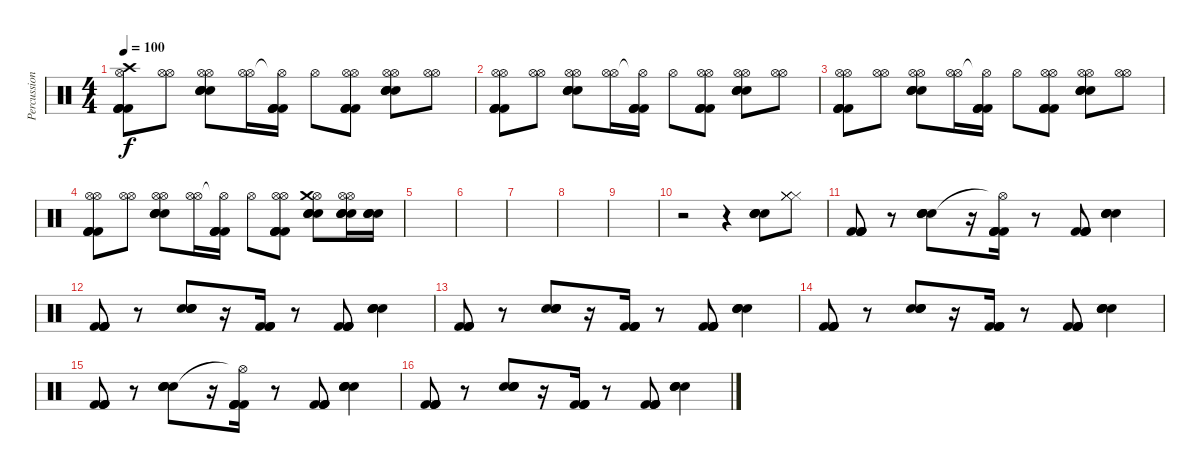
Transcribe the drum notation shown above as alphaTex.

\track ("Percussion" "Percussion") {instrument percussion}
\staff {score}
\articulation defaults
\ts (4 4)
\tempo 100
\clef neutral
\ks c
("Hi-Hat (open)" "Kick (hit) 2" "Kick (hit) 2" "Kick (hit) 2" "Kick (hit) 2" "Crash high (hit)").8{dy f} ("Hi-Hat (open)" "Hi-Hat (open)").8 ("Hi-Hat (open)" "Electric Snare (hit)" "Electric Snare (hit)" "Electric Snare (hit)" "Electric Snare (hit)" "Hi-Hat (open)").8 ("Hi-Hat (open)" "Hi-Hat (open)").16 ("Hi-Hat (open)"{t} "Kick (hit) 2" "Kick (hit) 2" "Kick (hit) 2" "Kick (hit) 2").16 "Hi-Hat (open)".8 ("Hi-Hat (open)" "Kick (hit) 2" "Kick (hit) 2" "Kick (hit) 2" "Kick (hit) 2" "Hi-Hat (open)").8 ("Hi-Hat (open)" "Electric Snare (hit)" "Electric Snare (hit)" "Electric Snare (hit)" "Electric Snare (hit)" "Hi-Hat (open)").8 ("Hi-Hat (open)" "Hi-Hat (open)").8 |
("Hi-Hat (open)" "Kick (hit) 2" "Kick (hit) 2" "Kick (hit) 2" "Kick (hit) 2" "Hi-Hat (open)").8 ("Hi-Hat (open)" "Hi-Hat (open)").8 ("Hi-Hat (open)" "Electric Snare (hit)" "Electric Snare (hit)" "Electric Snare (hit)" "Electric Snare (hit)" "Hi-Hat (open)").8 ("Hi-Hat (open)" "Hi-Hat (open)").16 ("Hi-Hat (open)"{t} "Kick (hit) 2" "Kick (hit) 2" "Kick (hit) 2" "Kick (hit) 2").16 "Hi-Hat (open)".8 ("Hi-Hat (open)" "Kick (hit) 2" "Kick (hit) 2" "Kick (hit) 2" "Kick (hit) 2" "Hi-Hat (open)").8 ("Hi-Hat (open)" "Electric Snare (hit)" "Electric Snare (hit)" "Electric Snare (hit)" "Electric Snare (hit)" "Hi-Hat (open)").8 ("Hi-Hat (open)" "Hi-Hat (open)").8 |
("Hi-Hat (open)" "Kick (hit) 2" "Kick (hit) 2" "Kick (hit) 2" "Kick (hit) 2" "Hi-Hat (open)").8 ("Hi-Hat (open)" "Hi-Hat (open)").8 ("Hi-Hat (open)" "Electric Snare (hit)" "Electric Snare (hit)" "Electric Snare (hit)" "Electric Snare (hit)" "Hi-Hat (open)").8 ("Hi-Hat (open)" "Hi-Hat (open)").16 ("Hi-Hat (open)"{t} "Kick (hit) 2" "Kick (hit) 2" "Kick (hit) 2" "Kick (hit) 2").16 "Hi-Hat (open)".8 ("Hi-Hat (open)" "Kick (hit) 2" "Kick (hit) 2" "Kick (hit) 2" "Kick (hit) 2" "Hi-Hat (open)").8 ("Hi-Hat (open)" "Electric Snare (hit)" "Electric Snare (hit)" "Electric Snare (hit)" "Electric Snare (hit)" "Hi-Hat (open)").8 ("Hi-Hat (open)" "Hi-Hat (open)").8 |
("Hi-Hat (open)" "Kick (hit) 2" "Kick (hit) 2" "Kick (hit) 2" "Kick (hit) 2" "Hi-Hat (open)").8 ("Hi-Hat (open)" "Hi-Hat (open)").8 ("Hi-Hat (open)" "Electric Snare (hit)" "Electric Snare (hit)" "Electric Snare (hit)" "Electric Snare (hit)" "Hi-Hat (open)").8 ("Hi-Hat (open)" "Hi-Hat (open)").16 ("Hi-Hat (open)"{t} "Kick (hit) 2" "Kick (hit) 2" "Kick (hit) 2" "Kick (hit) 2").16 "Hi-Hat (open)".8 ("Hi-Hat (open)" "Kick (hit) 2" "Kick (hit) 2" "Kick (hit) 2" "Kick (hit) 2" "Hi-Hat (open)").8 ("Hi-Hat (open)" "Electric Snare (hit)" "Electric Snare (hit)" "Electric Snare (hit)" "Electric Snare (hit)" "Crash medium (hit)").8 ("Hi-Hat (open)" "Electric Snare (hit)" "Electric Snare (hit)" "Electric Snare (hit)" "Electric Snare (hit)" "Hi-Hat (open)").16 ("Electric Snare (hit)" "Electric Snare (hit)" "Electric Snare (hit)" "Electric Snare (hit)").16 |
|
|
|
|
|
r.2 r.4 ("Electric Snare (hit)" "Electric Snare (hit)" "Electric Snare (hit)" "Electric Snare (hit)").8 ("Hi-Hat (closed)" "Hi-Hat (closed)" "Hi-Hat (closed)" "Hi-Hat (closed)").8 |
("Kick (hit) 2" "Kick (hit) 2" "Kick (hit) 2" "Kick (hit) 2").8 r.8 ("Electric Snare (hit)" "Electric Snare (hit)" "Electric Snare (hit)" "Electric Snare (hit)").8 r.16 ("Hi-Hat (open)"{t} "Kick (hit) 2" "Kick (hit) 2" "Kick (hit) 2" "Kick (hit) 2").16 r.8 ("Kick (hit) 2" "Kick (hit) 2" "Kick (hit) 2" "Kick (hit) 2").8 ("Electric Snare (hit)" "Electric Snare (hit)" "Electric Snare (hit)" "Electric Snare (hit)").4 |
("Kick (hit) 2" "Kick (hit) 2" "Kick (hit) 2" "Kick (hit) 2").8 r.8 ("Electric Snare (hit)" "Electric Snare (hit)" "Electric Snare (hit)" "Electric Snare (hit)").8 r.16 ("Kick (hit) 2" "Kick (hit) 2" "Kick (hit) 2" "Kick (hit) 2").16 r.8 ("Kick (hit) 2" "Kick (hit) 2" "Kick (hit) 2" "Kick (hit) 2").8 ("Electric Snare (hit)" "Electric Snare (hit)" "Electric Snare (hit)" "Electric Snare (hit)").4 |
("Kick (hit) 2" "Kick (hit) 2" "Kick (hit) 2" "Kick (hit) 2").8 r.8 ("Electric Snare (hit)" "Electric Snare (hit)" "Electric Snare (hit)" "Electric Snare (hit)").8 r.16 ("Kick (hit) 2" "Kick (hit) 2" "Kick (hit) 2" "Kick (hit) 2").16 r.8 ("Kick (hit) 2" "Kick (hit) 2" "Kick (hit) 2" "Kick (hit) 2").8 ("Electric Snare (hit)" "Electric Snare (hit)" "Electric Snare (hit)" "Electric Snare (hit)").4 |
("Kick (hit) 2" "Kick (hit) 2" "Kick (hit) 2" "Kick (hit) 2").8 r.8 ("Electric Snare (hit)" "Electric Snare (hit)" "Electric Snare (hit)" "Electric Snare (hit)").8 r.16 ("Kick (hit) 2" "Kick (hit) 2" "Kick (hit) 2" "Kick (hit) 2").16 r.8 ("Kick (hit) 2" "Kick (hit) 2" "Kick (hit) 2" "Kick (hit) 2").8 ("Electric Snare (hit)" "Electric Snare (hit)" "Electric Snare (hit)" "Electric Snare (hit)").4 |
("Kick (hit) 2" "Kick (hit) 2" "Kick (hit) 2" "Kick (hit) 2").8 r.8 ("Electric Snare (hit)" "Electric Snare (hit)" "Electric Snare (hit)" "Electric Snare (hit)").8 r.16 ("Hi-Hat (open)"{t} "Kick (hit) 2" "Kick (hit) 2" "Kick (hit) 2" "Kick (hit) 2").16 r.8 ("Kick (hit) 2" "Kick (hit) 2" "Kick (hit) 2" "Kick (hit) 2").8 ("Electric Snare (hit)" "Electric Snare (hit)" "Electric Snare (hit)" "Electric Snare (hit)").4 |
("Kick (hit) 2" "Kick (hit) 2" "Kick (hit) 2" "Kick (hit) 2").8 r.8 ("Electric Snare (hit)" "Electric Snare (hit)" "Electric Snare (hit)" "Electric Snare (hit)").8 r.16 ("Kick (hit) 2" "Kick (hit) 2" "Kick (hit) 2" "Kick (hit) 2").16 r.8 ("Kick (hit) 2" "Kick (hit) 2" "Kick (hit) 2" "Kick (hit) 2").8 ("Electric Snare (hit)" "Electric Snare (hit)" "Electric Snare (hit)" "Electric Snare (hit)").4
